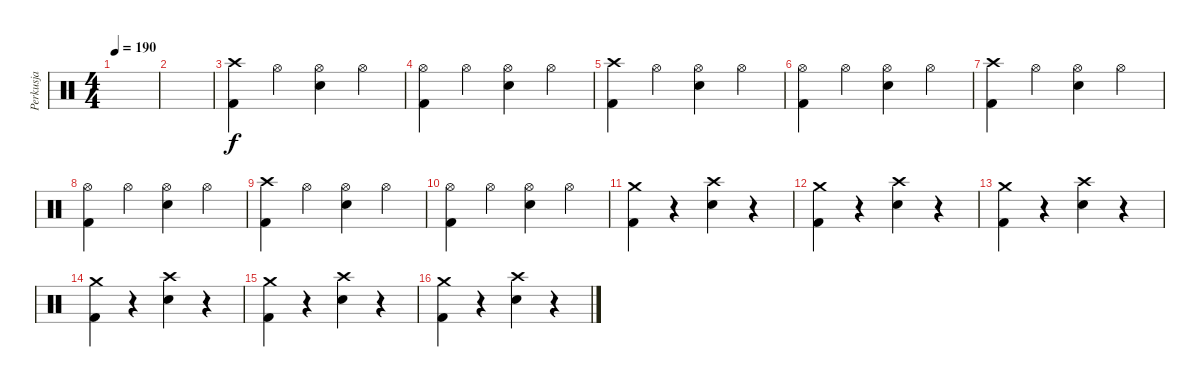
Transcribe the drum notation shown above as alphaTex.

\track ("Perkusja" "Perkusja") {instrument percussion}
\staff {score}
\articulation defaults
\ts (4 4)
\tempo 190
\clef neutral
\ks c
|
|
("Crash high (hit)" "Kick (hit) 2").4 "Hi-Hat (open)".4 ("Hi-Hat (open)" "Electric Snare (hit)").4 "Hi-Hat (open)".4 |
("Hi-Hat (open)" "Kick (hit) 2").4 "Hi-Hat (open)".4 ("Hi-Hat (open)" "Electric Snare (hit)").4 "Hi-Hat (open)".4 |
("Crash high (hit)" "Kick (hit) 2").4 "Hi-Hat (open)".4 ("Hi-Hat (open)" "Electric Snare (hit)").4 "Hi-Hat (open)".4 |
("Hi-Hat (open)" "Kick (hit) 2").4 "Hi-Hat (open)".4 ("Hi-Hat (open)" "Electric Snare (hit)").4 "Hi-Hat (open)".4 |
("Crash high (hit)" "Kick (hit) 2").4 "Hi-Hat (open)".4 ("Hi-Hat (open)" "Electric Snare (hit)").4 "Hi-Hat (open)".4 |
("Hi-Hat (open)" "Kick (hit) 2").4 "Hi-Hat (open)".4 ("Hi-Hat (open)" "Electric Snare (hit)").4 "Hi-Hat (open)".4 |
("Crash high (hit)" "Kick (hit) 2").4 "Hi-Hat (open)".4 ("Hi-Hat (open)" "Electric Snare (hit)").4 "Hi-Hat (open)".4 |
("Hi-Hat (open)" "Kick (hit) 2").4 "Hi-Hat (open)".4 ("Hi-Hat (open)" "Electric Snare (hit)").4 "Hi-Hat (open)".4 |
("Crash medium (hit)" "Kick (hit) 2").4 r.4 ("Crash high (hit)" "Electric Snare (hit)").4 r.4 |
("Crash medium (hit)" "Kick (hit) 2").4 r.4 ("Crash high (hit)" "Electric Snare (hit)").4 r.4 |
("Crash medium (hit)" "Kick (hit) 2").4 r.4 ("Crash high (hit)" "Electric Snare (hit)").4 r.4 |
("Crash medium (hit)" "Kick (hit) 2").4 r.4 ("Crash high (hit)" "Electric Snare (hit)").4 r.4 |
("Crash medium (hit)" "Kick (hit) 2").4 r.4 ("Crash high (hit)" "Electric Snare (hit)").4 r.4 |
("Crash medium (hit)" "Kick (hit) 2").4 r.4 ("Crash high (hit)" "Electric Snare (hit)").4 r.4
